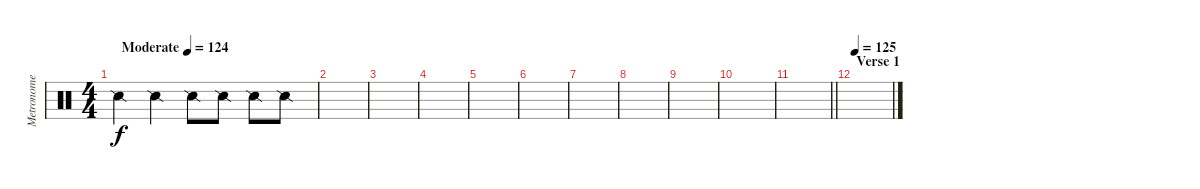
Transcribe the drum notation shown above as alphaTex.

\track ("Metronome" "Metronome") {instrument percussion}
\staff {score}
\articulation defaults
\ts (4 4)
\tempo (124 "Moderate")
\clef neutral
\ks c "Snare (side stick) 2".4{dy f} "Snare (side stick) 2".4 "Snare (side stick) 2".8 "Snare (side stick) 2".8 "Snare (side stick) 2".8 "Snare (side stick) 2".8
|
|
|
|
|
|
|
|
|
|
\barLineRight lightlight
|
\section ("" "Verse 1")
\tempo 125
